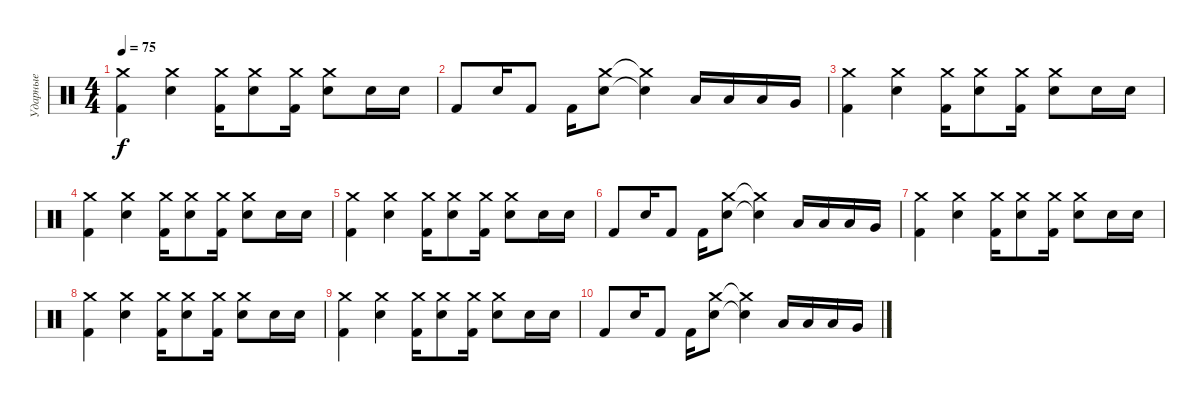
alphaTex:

\track ("Ударные" "Ударные") {instrument percussion}
\staff {score}
\articulation defaults
\ts (4 4)
\tempo 75
\clef neutral
\ks c
("Kick (hit) 2" "Crash medium (hit)").4{dy f} ("Electric Snare (hit)" "Crash medium (hit)").4 ("Kick (hit) 2" "Crash medium (hit)"{x}).16 ("Electric Snare (hit)" "Crash medium (hit)").8 ("Kick (hit) 2" "Crash medium (hit)"{x}).16 ("Electric Snare (hit)" "Crash medium (hit)").8 "Electric Snare (hit)".16 "Electric Snare (hit)".16 |
"Kick (hit) 2".8 "Electric Snare (hit)".16 "Kick (hit) 2".8 "Kick (hit) 2".16 ("Electric Snare (hit)" "Crash medium (hit)").8 ("Electric Snare (hit)"{t} "Crash medium (hit)"{t}).4 "Low Tom (hit)".16 "Low Tom (hit)".16 "Low Tom (hit)".16 "Very Low Tom (hit)".16 |
("Kick (hit) 2" "Crash medium (hit)").4 ("Electric Snare (hit)" "Crash medium (hit)").4 ("Kick (hit) 2" "Crash medium (hit)"{x}).16 ("Electric Snare (hit)" "Crash medium (hit)").8 ("Kick (hit) 2" "Crash medium (hit)"{x}).16 ("Electric Snare (hit)" "Crash medium (hit)").8 "Electric Snare (hit)".16 "Electric Snare (hit)".16 |
("Kick (hit) 2" "Crash medium (hit)").4 ("Electric Snare (hit)" "Crash medium (hit)").4 ("Kick (hit) 2" "Crash medium (hit)"{x}).16 ("Electric Snare (hit)" "Crash medium (hit)").8 ("Kick (hit) 2" "Crash medium (hit)"{x}).16 ("Electric Snare (hit)" "Crash medium (hit)").8 "Electric Snare (hit)".16 "Electric Snare (hit)".16 |
("Kick (hit) 2" "Crash medium (hit)").4 ("Electric Snare (hit)" "Crash medium (hit)").4 ("Kick (hit) 2" "Crash medium (hit)"{x}).16 ("Electric Snare (hit)" "Crash medium (hit)").8 ("Kick (hit) 2" "Crash medium (hit)"{x}).16 ("Electric Snare (hit)" "Crash medium (hit)").8 "Electric Snare (hit)".16 "Electric Snare (hit)".16 |
"Kick (hit) 2".8 "Electric Snare (hit)".16 "Kick (hit) 2".8 "Kick (hit) 2".16 ("Electric Snare (hit)" "Crash medium (hit)").8 ("Electric Snare (hit)"{t} "Crash medium (hit)"{t}).4 "Low Tom (hit)".16 "Low Tom (hit)".16 "Low Tom (hit)".16 "Very Low Tom (hit)".16 |
("Kick (hit) 2" "Crash medium (hit)").4 ("Electric Snare (hit)" "Crash medium (hit)").4 ("Kick (hit) 2" "Crash medium (hit)"{x}).16 ("Electric Snare (hit)" "Crash medium (hit)").8 ("Kick (hit) 2" "Crash medium (hit)"{x}).16 ("Electric Snare (hit)" "Crash medium (hit)").8 "Electric Snare (hit)".16 "Electric Snare (hit)".16 |
("Kick (hit) 2" "Crash medium (hit)").4 ("Electric Snare (hit)" "Crash medium (hit)").4 ("Kick (hit) 2" "Crash medium (hit)"{x}).16 ("Electric Snare (hit)" "Crash medium (hit)").8 ("Kick (hit) 2" "Crash medium (hit)"{x}).16 ("Electric Snare (hit)" "Crash medium (hit)").8 "Electric Snare (hit)".16 "Electric Snare (hit)".16 |
("Kick (hit) 2" "Crash medium (hit)").4 ("Electric Snare (hit)" "Crash medium (hit)").4 ("Kick (hit) 2" "Crash medium (hit)"{x}).16 ("Electric Snare (hit)" "Crash medium (hit)").8 ("Kick (hit) 2" "Crash medium (hit)"{x}).16 ("Electric Snare (hit)" "Crash medium (hit)").8 "Electric Snare (hit)".16 "Electric Snare (hit)".16 |
"Kick (hit) 2".8 "Electric Snare (hit)".16 "Kick (hit) 2".8 "Kick (hit) 2".16 ("Electric Snare (hit)" "Crash medium (hit)").8 ("Electric Snare (hit)"{t} "Crash medium (hit)"{t}).4 "Low Tom (hit)".16 "Low Tom (hit)".16 "Low Tom (hit)".16 "Very Low Tom (hit)".16
